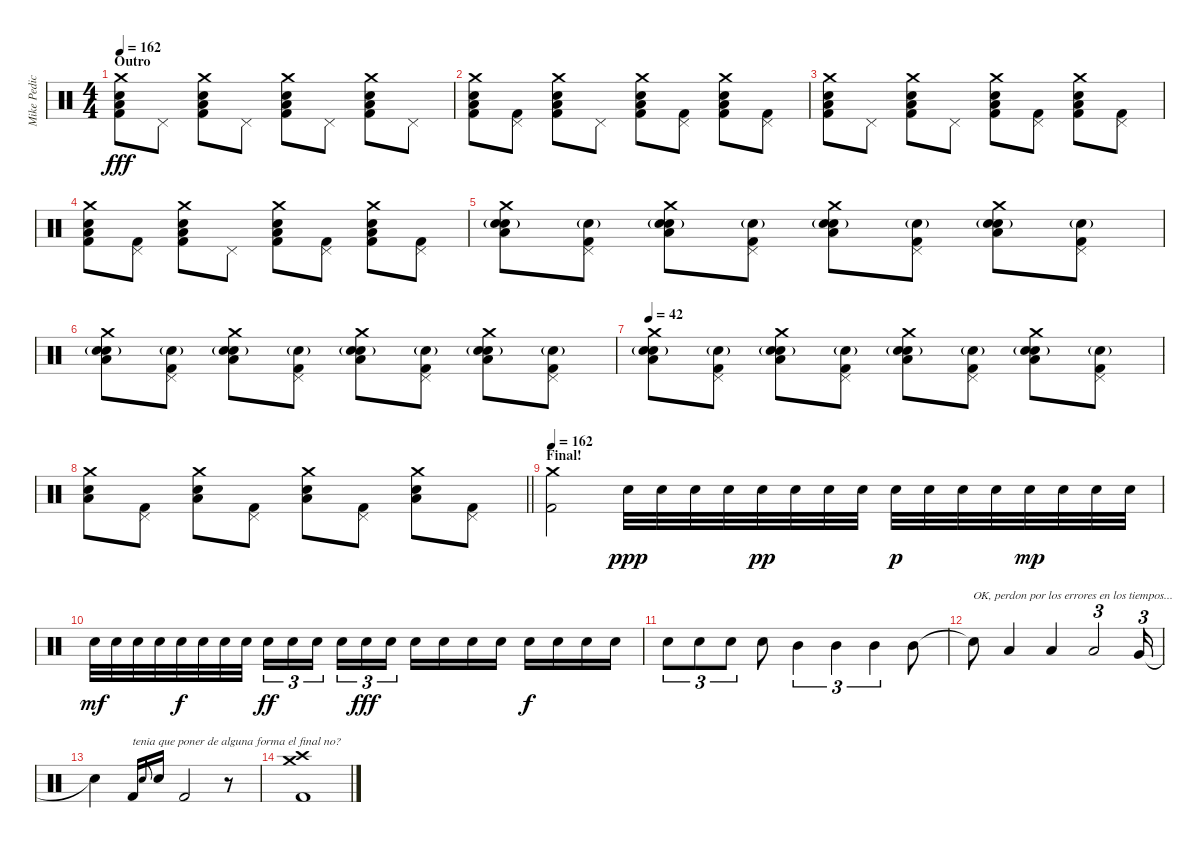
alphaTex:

\track ("Mike Pedicone [Drums]" "Mike Pedic") {instrument percussion}
\staff
\articulation defaults
\ts (4 4)
\section ("" "Outro")
\tempo 162
\clef neutral
\ks c
("Crash medium (hit)" "Low Floor Tom (hit)" "Electric Snare (hit)" "Kick (hit) 2").8{dy fff} "Pedal Hi-Hat (hit)".8 ("Crash medium (hit)" "Low Floor Tom (hit)" "Electric Snare (hit)" "Kick (hit) 2").8 "Pedal Hi-Hat (hit)".8 ("Crash medium (hit)" "Low Floor Tom (hit)" "Electric Snare (hit)" "Kick (hit) 2").8 "Pedal Hi-Hat (hit)".8 ("Crash medium (hit)" "Low Floor Tom (hit)" "Electric Snare (hit)" "Kick (hit) 2").8 "Pedal Hi-Hat (hit)".8 |
("Crash medium (hit)" "Low Floor Tom (hit)" "Electric Snare (hit)" "Kick (hit) 2").8 ("Pedal Hi-Hat (hit)" "Kick (hit) 2").8 ("Crash medium (hit)" "Low Floor Tom (hit)" "Electric Snare (hit)" "Kick (hit) 2").8 "Pedal Hi-Hat (hit)".8 ("Crash medium (hit)" "Low Floor Tom (hit)" "Electric Snare (hit)" "Kick (hit) 2").8 ("Pedal Hi-Hat (hit)" "Kick (hit) 2").8 ("Crash medium (hit)" "Low Floor Tom (hit)" "Electric Snare (hit)" "Kick (hit) 2").8 ("Pedal Hi-Hat (hit)" "Kick (hit) 2").8 |
("Crash medium (hit)" "Low Floor Tom (hit)" "Electric Snare (hit)" "Kick (hit) 2").8 "Pedal Hi-Hat (hit)".8 ("Crash medium (hit)" "Low Floor Tom (hit)" "Electric Snare (hit)" "Kick (hit) 2").8 "Pedal Hi-Hat (hit)".8 ("Crash medium (hit)" "Low Floor Tom (hit)" "Electric Snare (hit)" "Kick (hit) 2").8 ("Pedal Hi-Hat (hit)" "Kick (hit) 2").8 ("Crash medium (hit)" "Low Floor Tom (hit)" "Electric Snare (hit)" "Kick (hit) 2").8 ("Pedal Hi-Hat (hit)" "Kick (hit) 2").8 |
("Crash medium (hit)" "Low Floor Tom (hit)" "Electric Snare (hit)" "Kick (hit) 2").8 ("Pedal Hi-Hat (hit)" "Kick (hit) 2").8 ("Crash medium (hit)" "Low Floor Tom (hit)" "Electric Snare (hit)" "Kick (hit) 2").8 "Pedal Hi-Hat (hit)".8 ("Crash medium (hit)" "Low Floor Tom (hit)" "Electric Snare (hit)" "Kick (hit) 2").8 ("Pedal Hi-Hat (hit)" "Kick (hit) 2").8 ("Crash medium (hit)" "Low Floor Tom (hit)" "Electric Snare (hit)" "Kick (hit) 2").8 ("Pedal Hi-Hat (hit)" "Kick (hit) 2").8 |
("Hand Clap (hit)"{g} "Crash medium (hit)" "Low Floor Tom (hit)" "Electric Snare (hit)").8 ("Hand Clap (hit)"{g} "Pedal Hi-Hat (hit)" "Kick (hit) 2").8 ("Hand Clap (hit)"{g} "Crash medium (hit)" "Low Floor Tom (hit)" "Electric Snare (hit)").8 ("Hand Clap (hit)"{g} "Pedal Hi-Hat (hit)" "Kick (hit) 2").8 ("Hand Clap (hit)"{g} "Crash medium (hit)" "Low Floor Tom (hit)" "Electric Snare (hit)").8 ("Hand Clap (hit)"{g} "Pedal Hi-Hat (hit)" "Kick (hit) 2").8 ("Hand Clap (hit)"{g} "Crash medium (hit)" "Low Floor Tom (hit)" "Electric Snare (hit)").8 ("Hand Clap (hit)"{g} "Pedal Hi-Hat (hit)" "Kick (hit) 2").8 |
("Hand Clap (hit)"{g} "Crash medium (hit)" "Low Floor Tom (hit)" "Electric Snare (hit)").8 ("Hand Clap (hit)"{g} "Pedal Hi-Hat (hit)" "Kick (hit) 2").8 ("Hand Clap (hit)"{g} "Crash medium (hit)" "Low Floor Tom (hit)" "Electric Snare (hit)").8 ("Hand Clap (hit)"{g} "Pedal Hi-Hat (hit)" "Kick (hit) 2").8 ("Hand Clap (hit)"{g} "Crash medium (hit)" "Low Floor Tom (hit)" "Electric Snare (hit)").8 ("Hand Clap (hit)"{g} "Pedal Hi-Hat (hit)" "Kick (hit) 2").8 ("Hand Clap (hit)"{g} "Crash medium (hit)" "Low Floor Tom (hit)" "Electric Snare (hit)").8 ("Hand Clap (hit)"{g} "Pedal Hi-Hat (hit)" "Kick (hit) 2").8 |
\tempo 42
("Hand Clap (hit)"{g} "Crash medium (hit)" "Low Floor Tom (hit)" "Electric Snare (hit)").8 ("Hand Clap (hit)"{g} "Pedal Hi-Hat (hit)" "Kick (hit) 2").8 ("Hand Clap (hit)"{g} "Crash medium (hit)" "Low Floor Tom (hit)" "Electric Snare (hit)").8 ("Hand Clap (hit)"{g} "Pedal Hi-Hat (hit)" "Kick (hit) 2").8 ("Hand Clap (hit)"{g} "Crash medium (hit)" "Low Floor Tom (hit)" "Electric Snare (hit)").8 ("Hand Clap (hit)"{g} "Pedal Hi-Hat (hit)" "Kick (hit) 2").8 ("Hand Clap (hit)"{g} "Crash medium (hit)" "Low Floor Tom (hit)" "Electric Snare (hit)").8 ("Hand Clap (hit)"{g} "Pedal Hi-Hat (hit)" "Kick (hit) 2").8 |
\barLineRight lightlight
("Crash medium (hit)" "Low Floor Tom (hit)" "Electric Snare (hit)").8 ("Pedal Hi-Hat (hit)" "Kick (hit) 2").8 ("Crash medium (hit)" "Low Floor Tom (hit)" "Electric Snare (hit)").8 ("Pedal Hi-Hat (hit)" "Kick (hit) 2").8 ("Crash medium (hit)" "Low Floor Tom (hit)" "Electric Snare (hit)").8 ("Pedal Hi-Hat (hit)" "Kick (hit) 2").8 ("Crash medium (hit)" "Low Floor Tom (hit)" "Electric Snare (hit)").8 ("Pedal Hi-Hat (hit)" "Kick (hit) 2").8 |
\section ("" "Final!")
\tempo 162
("Crash medium (hit)" "Kick (hit) 2").2 "Electric Snare (hit)".32{dy ppp} "Electric Snare (hit)".32 "Electric Snare (hit)".32 "Electric Snare (hit)".32 "Electric Snare (hit)".32{dy pp} "Electric Snare (hit)".32 "Electric Snare (hit)".32 "Electric Snare (hit)".32 "Electric Snare (hit)".32{dy p} "Electric Snare (hit)".32 "Electric Snare (hit)".32 "Electric Snare (hit)".32 "Electric Snare (hit)".32{dy mp} "Electric Snare (hit)".32 "Electric Snare (hit)".32 "Electric Snare (hit)".32 |
"Electric Snare (hit)".32{dy mf} "Electric Snare (hit)".32 "Electric Snare (hit)".32 "Electric Snare (hit)".32 "Electric Snare (hit)".32{dy f} "Electric Snare (hit)".32 "Electric Snare (hit)".32 "Electric Snare (hit)".32 "Electric Snare (hit)".16{tu (3 2) dy ff} "Electric Snare (hit)".16{tu (3 2)} "Electric Snare (hit)".16{tu (3 2) beam splitsecondary} "Electric Snare (hit)".16{tu (3 2)} "Electric Snare (hit)".16{tu (3 2) dy fff} "Electric Snare (hit)".16{tu (3 2)} "Electric Snare (hit)".16 "Electric Snare (hit)".16 "Electric Snare (hit)".16 "Electric Snare (hit)".16 "Electric Snare (hit)".16{dy f} "Electric Snare (hit)".16 "Electric Snare (hit)".16 "Electric Snare (hit)".16 |
"Electric Snare (hit)".8{tu (3 2)} "Electric Snare (hit)".8{tu (3 2)} "Electric Snare (hit)".8{tu (3 2)} "Electric Snare (hit)".8 "Mid Tom (hit)".4{tu (3 2)} "Mid Tom (hit)".4{tu (3 2)} "Mid Tom (hit)".4{tu (3 2)} "Mid Tom (hit)".8 |
"Snare (hit)"{t}.8{txt "OK, perdon por los errores en los tiempos..."} "Low Tom (hit)".4 "Low Tom (hit)".4 "Low Tom (hit)".2{tu (3 2)} "Very Low Tom (hit)".16{tu (3 2)} |
"Snare (hit)"{t}.4 "Kick (hit) 2".16{txt "tenia que poner de alguna forma el final no?"} "Electric Snare (hit)".8{gr onbeat} "Electric Snare (hit)".16 "Kick (hit) 2".2 r.8 |
("Crash high (hit)" "Crash medium (hit)" "Kick (hit) 2").1
